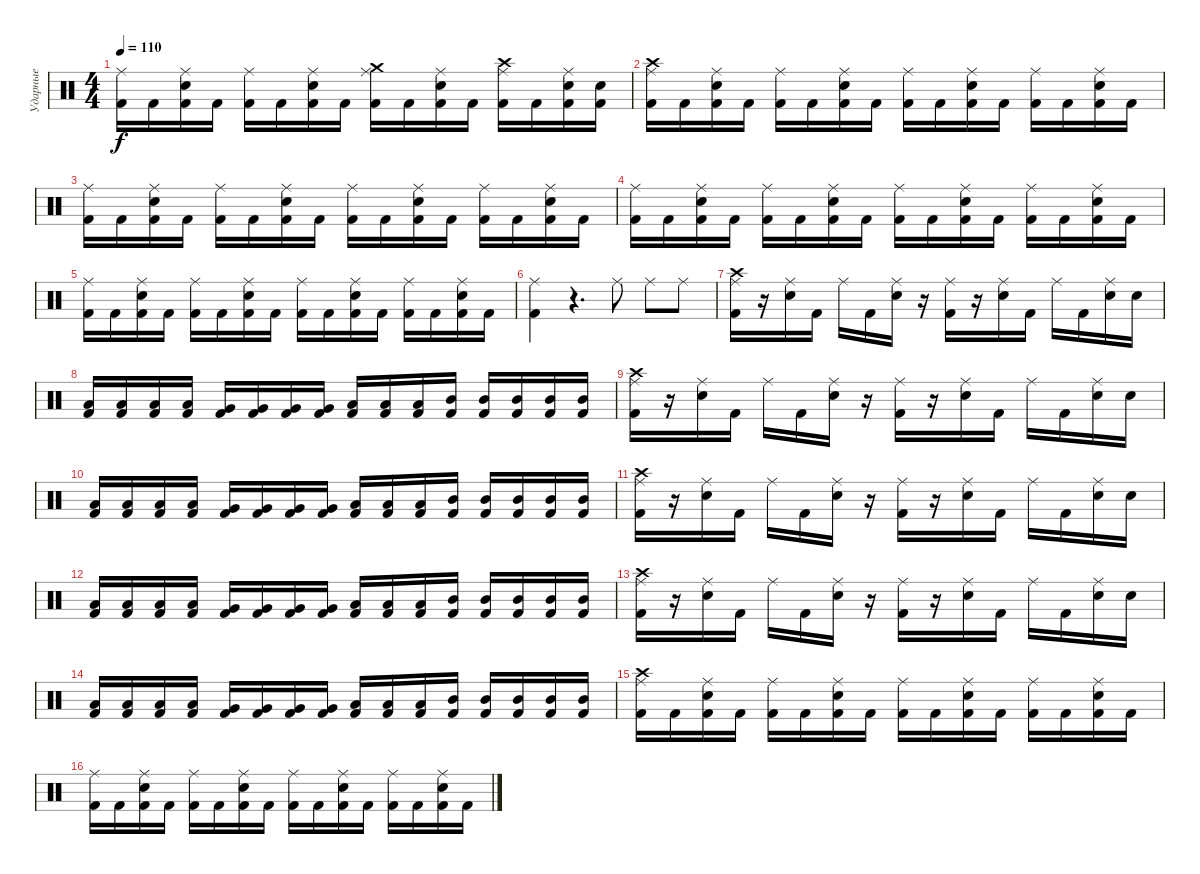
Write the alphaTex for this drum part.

\track ("Ударные" "Ударные") {instrument percussion}
\staff {score}
\articulation defaults
\ts (4 4)
\tempo 110
\clef neutral
\ks c
("Ride (middle)" "Kick (hit) 2").16{dy f} "Kick (hit) 2".16 ("Ride (middle)" "Snare (hit) 2" "Kick (hit) 2").16 "Kick (hit) 2".16 ("Ride (middle)" "Kick (hit) 2").16 "Kick (hit) 2".16 ("Ride (middle)" "Snare (hit) 2" "Kick (hit) 2").16 "Kick (hit) 2".16 ("Ride (middle)" "Crash medium (hit)" "Kick (hit) 2").16 "Kick (hit) 2".16 ("Ride (middle)" "Snare (hit) 2" "Kick (hit) 2").16 "Kick (hit) 2".16 ("Ride (middle)" "Crash high (hit)" "Kick (hit) 2").16 "Kick (hit) 2".16 ("Ride (middle)" "Snare (hit) 2" "Kick (hit) 2").16 ("Snare (hit) 2" "Kick (hit) 2").16 |
("Ride (middle)" "Crash high (hit)" "Kick (hit) 2").16 "Kick (hit) 2".16 ("Ride (middle)" "Snare (hit) 2" "Kick (hit) 2").16 "Kick (hit) 2".16 ("Ride (middle)" "Kick (hit) 2").16 "Kick (hit) 2".16 ("Ride (middle)" "Snare (hit) 2" "Kick (hit) 2").16 "Kick (hit) 2".16 ("Ride (middle)" "Kick (hit) 2").16 "Kick (hit) 2".16 ("Ride (middle)" "Snare (hit) 2" "Kick (hit) 2").16 "Kick (hit) 2".16 ("Ride (middle)" "Kick (hit) 2").16 "Kick (hit) 2".16 ("Ride (middle)" "Snare (hit) 2" "Kick (hit) 2").16 "Kick (hit) 2".16 |
("Ride (middle)" "Kick (hit) 2").16 "Kick (hit) 2".16 ("Ride (middle)" "Snare (hit) 2" "Kick (hit) 2").16 "Kick (hit) 2".16 ("Ride (middle)" "Kick (hit) 2").16 "Kick (hit) 2".16 ("Ride (middle)" "Snare (hit) 2" "Kick (hit) 2").16 "Kick (hit) 2".16 ("Ride (middle)" "Kick (hit) 2").16 "Kick (hit) 2".16 ("Ride (middle)" "Snare (hit) 2" "Kick (hit) 2").16 "Kick (hit) 2".16 ("Ride (middle)" "Kick (hit) 2").16 "Kick (hit) 2".16 ("Ride (middle)" "Snare (hit) 2" "Kick (hit) 2").16 "Kick (hit) 2".16 |
("Ride (middle)" "Kick (hit) 2").16 "Kick (hit) 2".16 ("Ride (middle)" "Snare (hit) 2" "Kick (hit) 2").16 "Kick (hit) 2".16 ("Ride (middle)" "Kick (hit) 2").16 "Kick (hit) 2".16 ("Ride (middle)" "Snare (hit) 2" "Kick (hit) 2").16 "Kick (hit) 2".16 ("Ride (middle)" "Kick (hit) 2").16 "Kick (hit) 2".16 ("Ride (middle)" "Snare (hit) 2" "Kick (hit) 2").16 "Kick (hit) 2".16 ("Ride (middle)" "Kick (hit) 2").16 "Kick (hit) 2".16 ("Ride (middle)" "Snare (hit) 2" "Kick (hit) 2").16 "Kick (hit) 2".16 |
("Ride (middle)" "Kick (hit) 2").16 "Kick (hit) 2".16 ("Ride (middle)" "Snare (hit) 2" "Kick (hit) 2").16 "Kick (hit) 2".16 ("Ride (middle)" "Kick (hit) 2").16 "Kick (hit) 2".16 ("Ride (middle)" "Snare (hit) 2" "Kick (hit) 2").16 "Kick (hit) 2".16 ("Ride (middle)" "Kick (hit) 2").16 "Kick (hit) 2".16 ("Ride (middle)" "Snare (hit) 2" "Kick (hit) 2").16 "Kick (hit) 2".16 ("Ride (middle)" "Kick (hit) 2").16 "Kick (hit) 2".16 ("Ride (middle)" "Snare (hit) 2" "Kick (hit) 2").16 "Kick (hit) 2".16 |
("Ride (middle)" "Kick (hit) 2").4 r.4{d} "Ride (middle)".8 "Ride (middle)".8 "Ride (middle)".8 |
("Ride (middle)" "Crash high (hit)" "Kick (hit) 2").16 r.16 ("Ride (middle)" "Snare (hit) 2").16 "Kick (hit) 2".16 "Ride (middle)".16 "Kick (hit) 2".16 ("Ride (middle)" "Snare (hit) 2").16 r.16 ("Ride (middle)" "Kick (hit) 2").16 r.16 ("Ride (middle)" "Snare (hit) 2").16 "Kick (hit) 2".16 "Ride (middle)".16 "Kick (hit) 2".16 ("Ride (middle)" "Snare (hit) 2").16 "Snare (hit) 2".16 |
("Low Floor Tom (hit)" "Kick (hit) 2").16 ("Low Floor Tom (hit)" "Kick (hit) 2").16 ("Low Floor Tom (hit)" "Kick (hit) 2").16 ("Low Floor Tom (hit)" "Kick (hit) 2").16 ("Very Low Tom (hit)" "Kick (hit) 2").16 ("Very Low Tom (hit)" "Kick (hit) 2").16 ("Very Low Tom (hit)" "Kick (hit) 2").16 ("Very Low Tom (hit)" "Kick (hit) 2").16 ("Low Tom (hit)" "Kick (hit) 2").16 ("Low Tom (hit)" "Kick (hit) 2").16 ("Low Tom (hit)" "Kick (hit) 2").16 ("Mid Tom (hit)" "Kick (hit) 2").16 ("Mid Tom (hit)" "Kick (hit) 2").16 ("Mid Tom (hit)" "Kick (hit) 2").16 ("Mid Tom (hit)" "Kick (hit) 2").16 ("Mid Tom (hit)" "Kick (hit) 2").16 |
("Ride (middle)" "Crash high (hit)" "Kick (hit) 2").16 r.16 ("Ride (middle)" "Snare (hit) 2").16 "Kick (hit) 2".16 "Ride (middle)".16 "Kick (hit) 2".16 ("Ride (middle)" "Snare (hit) 2").16 r.16 ("Ride (middle)" "Kick (hit) 2").16 r.16 ("Ride (middle)" "Snare (hit) 2").16 "Kick (hit) 2".16 "Ride (middle)".16 "Kick (hit) 2".16 ("Ride (middle)" "Snare (hit) 2").16 "Snare (hit) 2".16 |
("Low Floor Tom (hit)" "Kick (hit) 2").16 ("Low Floor Tom (hit)" "Kick (hit) 2").16 ("Low Floor Tom (hit)" "Kick (hit) 2").16 ("Low Floor Tom (hit)" "Kick (hit) 2").16 ("Very Low Tom (hit)" "Kick (hit) 2").16 ("Very Low Tom (hit)" "Kick (hit) 2").16 ("Very Low Tom (hit)" "Kick (hit) 2").16 ("Very Low Tom (hit)" "Kick (hit) 2").16 ("Low Tom (hit)" "Kick (hit) 2").16 ("Low Tom (hit)" "Kick (hit) 2").16 ("Low Tom (hit)" "Kick (hit) 2").16 ("Mid Tom (hit)" "Kick (hit) 2").16 ("Mid Tom (hit)" "Kick (hit) 2").16 ("Mid Tom (hit)" "Kick (hit) 2").16 ("Mid Tom (hit)" "Kick (hit) 2").16 ("Mid Tom (hit)" "Kick (hit) 2").16 |
("Ride (middle)" "Crash high (hit)" "Kick (hit) 2").16 r.16 ("Ride (middle)" "Snare (hit) 2").16 "Kick (hit) 2".16 "Ride (middle)".16 "Kick (hit) 2".16 ("Ride (middle)" "Snare (hit) 2").16 r.16 ("Ride (middle)" "Kick (hit) 2").16 r.16 ("Ride (middle)" "Snare (hit) 2").16 "Kick (hit) 2".16 "Ride (middle)".16 "Kick (hit) 2".16 ("Ride (middle)" "Snare (hit) 2").16 "Snare (hit) 2".16 |
("Low Floor Tom (hit)" "Kick (hit) 2").16 ("Low Floor Tom (hit)" "Kick (hit) 2").16 ("Low Floor Tom (hit)" "Kick (hit) 2").16 ("Low Floor Tom (hit)" "Kick (hit) 2").16 ("Very Low Tom (hit)" "Kick (hit) 2").16 ("Very Low Tom (hit)" "Kick (hit) 2").16 ("Very Low Tom (hit)" "Kick (hit) 2").16 ("Very Low Tom (hit)" "Kick (hit) 2").16 ("Low Tom (hit)" "Kick (hit) 2").16 ("Low Tom (hit)" "Kick (hit) 2").16 ("Low Tom (hit)" "Kick (hit) 2").16 ("Mid Tom (hit)" "Kick (hit) 2").16 ("Mid Tom (hit)" "Kick (hit) 2").16 ("Mid Tom (hit)" "Kick (hit) 2").16 ("Mid Tom (hit)" "Kick (hit) 2").16 ("Mid Tom (hit)" "Kick (hit) 2").16 |
("Ride (middle)" "Crash high (hit)" "Kick (hit) 2").16 r.16 ("Ride (middle)" "Snare (hit) 2").16 "Kick (hit) 2".16 "Ride (middle)".16 "Kick (hit) 2".16 ("Ride (middle)" "Snare (hit) 2").16 r.16 ("Ride (middle)" "Kick (hit) 2").16 r.16 ("Ride (middle)" "Snare (hit) 2").16 "Kick (hit) 2".16 "Ride (middle)".16 "Kick (hit) 2".16 ("Ride (middle)" "Snare (hit) 2").16 "Snare (hit) 2".16 |
("Low Floor Tom (hit)" "Kick (hit) 2").16 ("Low Floor Tom (hit)" "Kick (hit) 2").16 ("Low Floor Tom (hit)" "Kick (hit) 2").16 ("Low Floor Tom (hit)" "Kick (hit) 2").16 ("Very Low Tom (hit)" "Kick (hit) 2").16 ("Very Low Tom (hit)" "Kick (hit) 2").16 ("Very Low Tom (hit)" "Kick (hit) 2").16 ("Very Low Tom (hit)" "Kick (hit) 2").16 ("Low Tom (hit)" "Kick (hit) 2").16 ("Low Tom (hit)" "Kick (hit) 2").16 ("Low Tom (hit)" "Kick (hit) 2").16 ("Mid Tom (hit)" "Kick (hit) 2").16 ("Mid Tom (hit)" "Kick (hit) 2").16 ("Mid Tom (hit)" "Kick (hit) 2").16 ("Mid Tom (hit)" "Kick (hit) 2").16 ("Mid Tom (hit)" "Kick (hit) 2").16 |
("Ride (middle)" "Crash high (hit)" "Kick (hit) 2").16 "Kick (hit) 2".16 ("Ride (middle)" "Snare (hit) 2" "Kick (hit) 2").16 "Kick (hit) 2".16 ("Ride (middle)" "Kick (hit) 2").16 "Kick (hit) 2".16 ("Ride (middle)" "Snare (hit) 2" "Kick (hit) 2").16 "Kick (hit) 2".16 ("Ride (middle)" "Kick (hit) 2").16 "Kick (hit) 2".16 ("Ride (middle)" "Snare (hit) 2" "Kick (hit) 2").16 "Kick (hit) 2".16 ("Ride (middle)" "Kick (hit) 2").16 "Kick (hit) 2".16 ("Ride (middle)" "Snare (hit) 2" "Kick (hit) 2").16 "Kick (hit) 2".16 |
("Ride (middle)" "Kick (hit) 2").16 "Kick (hit) 2".16 ("Ride (middle)" "Snare (hit) 2" "Kick (hit) 2").16 "Kick (hit) 2".16 ("Ride (middle)" "Kick (hit) 2").16 "Kick (hit) 2".16 ("Ride (middle)" "Snare (hit) 2" "Kick (hit) 2").16 "Kick (hit) 2".16 ("Ride (middle)" "Kick (hit) 2").16 "Kick (hit) 2".16 ("Ride (middle)" "Snare (hit) 2" "Kick (hit) 2").16 "Kick (hit) 2".16 ("Ride (middle)" "Kick (hit) 2").16 "Kick (hit) 2".16 ("Ride (middle)" "Snare (hit) 2" "Kick (hit) 2").16 "Kick (hit) 2".16
